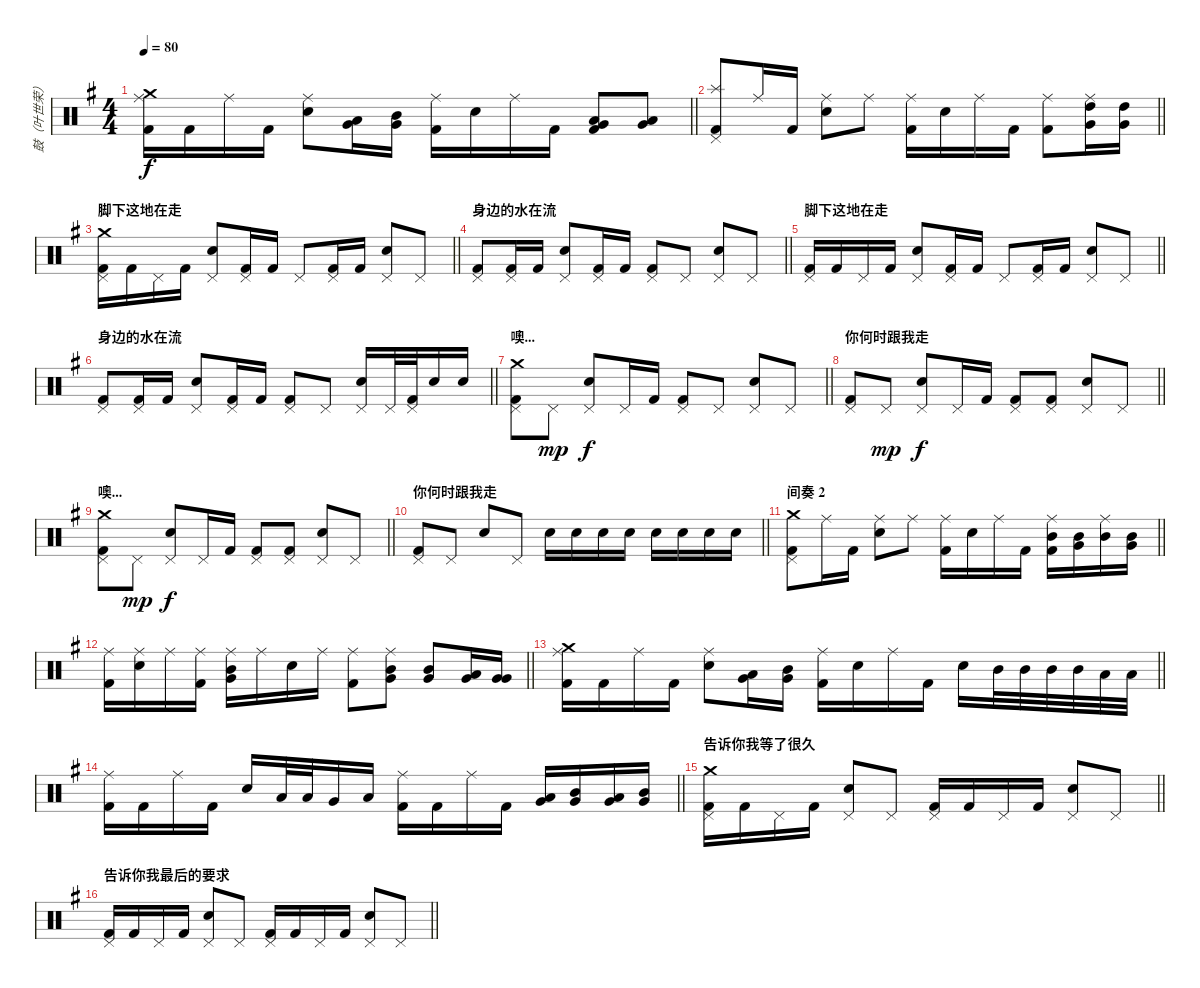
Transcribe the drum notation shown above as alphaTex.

\track ("鼓（叶世荣）" "鼓（叶世荣）") {instrument percussion}
\staff {score}
\articulation defaults
\ts (4 4)
\tempo 80
\clef neutral
\barLineRight lightlight
\ks g
("Crash medium (hit)" "Ride (middle)" "Kick (hit) 2").16{dy f} "Kick (hit) 2".16 "Ride (middle)".16 "Kick (hit) 2".16 ("Ride (middle)" "Snare (hit) 2").8 ("Low Tom (hit)" "Very Low Tom (hit)").16 ("Mid Tom (hit)" "Very Low Tom (hit)").16 ("Ride (middle)" "Kick (hit) 2").16 "Snare (hit) 2".16 "Ride (middle)".16 "Kick (hit) 2".16 ("Low Tom (hit)" "Very Low Tom (hit)" "Kick (hit) 2").8 ("Low Tom (hit)" "Very Low Tom (hit)").8 |
\barLineRight lightlight
("Splash (hit)" "Pedal Hi-Hat (hit)" "Kick (hit) 2").8 "Ride (middle)".16 "Kick (hit) 2".16 ("Ride (middle)" "Snare (hit) 2").8 "Ride (middle)".8 ("Ride (middle)" "Kick (hit) 2").16 "Snare (hit) 2".16 "Ride (middle)".16 "Kick (hit) 2".16 ("Ride (middle)" "Kick (hit) 2").8 ("Ride (middle)" "High Tom (hit)" "Very Low Tom (hit)").16 ("High Tom (hit)" "Very Low Tom (hit)").16 |
\section ("" "脚下这地在走")
\barLineRight lightlight
("Crash medium (hit)" "Pedal Hi-Hat (hit)" "Kick (hit) 2").16 "Kick (hit) 2".16 "Pedal Hi-Hat (hit)".16 "Kick (hit) 2".16 ("Pedal Hi-Hat (hit)" "Snare (hit) 2").8 ("Pedal Hi-Hat (hit)" "Kick (hit) 2").16 "Kick (hit) 2".16 "Pedal Hi-Hat (hit)".8 ("Pedal Hi-Hat (hit)" "Kick (hit) 2").16 "Kick (hit) 2".16 ("Pedal Hi-Hat (hit)" "Snare (hit) 2").8 "Pedal Hi-Hat (hit)".8 |
\section ("" "身边的水在流")
\barLineRight lightlight
("Pedal Hi-Hat (hit)" "Kick (hit) 2").8 ("Pedal Hi-Hat (hit)" "Kick (hit) 2").16 "Kick (hit) 2".16 ("Pedal Hi-Hat (hit)" "Snare (hit) 2").8 ("Pedal Hi-Hat (hit)" "Kick (hit) 2").16 "Kick (hit) 2".16 ("Pedal Hi-Hat (hit)" "Kick (hit) 2").8 "Pedal Hi-Hat (hit)".8 ("Pedal Hi-Hat (hit)" "Snare (hit) 2").8 "Pedal Hi-Hat (hit)".8 |
\section ("" "脚下这地在走")
\barLineRight lightlight
("Pedal Hi-Hat (hit)" "Kick (hit) 2").16 "Kick (hit) 2".16 "Pedal Hi-Hat (hit)".16 "Kick (hit) 2".16 ("Pedal Hi-Hat (hit)" "Snare (hit) 2").8 ("Pedal Hi-Hat (hit)" "Kick (hit) 2").16 "Kick (hit) 2".16 "Pedal Hi-Hat (hit)".8 ("Pedal Hi-Hat (hit)" "Kick (hit) 2").16 "Kick (hit) 2".16 ("Pedal Hi-Hat (hit)" "Snare (hit) 2").8 "Pedal Hi-Hat (hit)".8 |
\section ("" "身边的水在流")
\barLineRight lightlight
("Pedal Hi-Hat (hit)" "Kick (hit) 2").8 ("Pedal Hi-Hat (hit)" "Kick (hit) 2").16 "Kick (hit) 2".16 ("Pedal Hi-Hat (hit)" "Snare (hit) 2").8 ("Pedal Hi-Hat (hit)" "Kick (hit) 2").16 "Kick (hit) 2".16 ("Pedal Hi-Hat (hit)" "Kick (hit) 2").8 "Pedal Hi-Hat (hit)".8 ("Pedal Hi-Hat (hit)" "Snare (hit) 2").16 "Pedal Hi-Hat (hit)".32 ("Pedal Hi-Hat (hit)" "Kick (hit) 2").32 "Snare (hit) 2".16 "Snare (hit) 2".16 |
\section ("" "噢...")
\barLineRight lightlight
("Crash medium (hit)" "Pedal Hi-Hat (hit)" "Kick (hit) 2").8 "Pedal Hi-Hat (hit)".8{dy mp} ("Pedal Hi-Hat (hit)" "Snare (hit) 2").8{dy f} "Pedal Hi-Hat (hit)".16 "Kick (hit) 2".16 ("Pedal Hi-Hat (hit)" "Kick (hit) 2").8 "Pedal Hi-Hat (hit)".8 ("Pedal Hi-Hat (hit)" "Snare (hit) 2").8 "Pedal Hi-Hat (hit)".8 |
\section ("" "你何时跟我走")
\barLineRight lightlight
("Pedal Hi-Hat (hit)" "Kick (hit) 2").8 "Pedal Hi-Hat (hit)".8{dy mp} ("Pedal Hi-Hat (hit)" "Snare (hit) 2").8{dy f} "Pedal Hi-Hat (hit)".16 "Kick (hit) 2".16 ("Pedal Hi-Hat (hit)" "Kick (hit) 2").8 ("Pedal Hi-Hat (hit)" "Kick (hit) 2").8 ("Pedal Hi-Hat (hit)" "Snare (hit) 2").8 "Pedal Hi-Hat (hit)".8 |
\section ("" "噢...")
\barLineRight lightlight
("Crash medium (hit)" "Pedal Hi-Hat (hit)" "Kick (hit) 2").8 "Pedal Hi-Hat (hit)".8{dy mp} ("Pedal Hi-Hat (hit)" "Snare (hit) 2").8{dy f} "Pedal Hi-Hat (hit)".16 "Kick (hit) 2".16 ("Pedal Hi-Hat (hit)" "Kick (hit) 2").8 ("Pedal Hi-Hat (hit)" "Kick (hit) 2").8 ("Pedal Hi-Hat (hit)" "Snare (hit) 2").8 "Pedal Hi-Hat (hit)".8 |
\section ("" "你何时跟我走")
\barLineRight lightlight
("Pedal Hi-Hat (hit)" "Kick (hit) 2").8 "Pedal Hi-Hat (hit)".8 "Snare (hit) 2".8 "Pedal Hi-Hat (hit)".8 "Electric Snare (hit)".16 "Snare (hit) 2".16 "Electric Snare (hit)".16 "Snare (hit) 2".16 "Electric Snare (hit)".16 "Snare (hit) 2".16 "Electric Snare (hit)".16 "Snare (hit) 2".16 |
\section ("" "间奏 2")
\barLineRight lightlight
("Crash medium (hit)" "Pedal Hi-Hat (hit)" "Kick (hit) 2").8 "Ride (middle)".16 "Kick (hit) 2".16 ("Ride (middle)" "Snare (hit) 2").8 "Ride (middle)".8 ("Ride (middle)" "Kick (hit) 2").16 "Snare (hit) 2".16 "Ride (middle)".16 "Kick (hit) 2".16 ("Ride (middle)" "Mid Tom (hit)" "Kick (hit) 2").16 ("Mid Tom (hit)" "Very Low Tom (hit)").16 ("Ride (middle)" "Mid Tom (hit)").16 ("Mid Tom (hit)" "Very Low Tom (hit)").16 |
\barLineRight lightlight
("Ride (middle)" "Kick (hit) 2").16 ("Ride (middle)" "Snare (hit) 2").16 "Ride (middle)".16 ("Ride (middle)" "Kick (hit) 2").16 ("Ride (middle)" "Mid Tom (hit)" "Very Low Tom (hit)").16 "Ride (middle)".16 "Snare (hit) 2".16 "Ride (middle)".16 ("Ride (middle)" "Kick (hit) 2").8 ("Ride (middle)" "Mid Tom (hit)" "Very Low Tom (hit)").8 ("Mid Tom (hit)" "Very Low Tom (hit)").8 ("Low Tom (hit)" "Very Low Tom (hit)").16 ("Very Low Tom (hit)" "Very Low Tom (hit)").16 |
\barLineRight lightlight
("Crash medium (hit)" "Ride (middle)" "Kick (hit) 2").16 "Kick (hit) 2".16 "Ride (middle)".16 "Kick (hit) 2".16 ("Ride (middle)" "Snare (hit) 2").8 ("Low Tom (hit)" "Very Low Tom (hit)").16 ("Mid Tom (hit)" "Very Low Tom (hit)").16 ("Ride (middle)" "Kick (hit) 2").16 "Snare (hit) 2".16 "Ride (middle)".16 "Kick (hit) 2".16 "Snare (hit) 2".16 "Mid Tom (hit)".32 "Mid Tom (hit)".32 "Mid Tom (hit)".32 "Mid Tom (hit)".32 "Low Tom (hit)".32 "Low Tom (hit)".32 |
\barLineRight lightlight
("Ride (middle)" "Kick (hit) 2").16 "Kick (hit) 2".16 "Ride (middle)".16 "Kick (hit) 2".16 "Snare (hit) 2".16 "Low Tom (hit)".32 "Low Tom (hit)".32 "Very Low Tom (hit)".16 "Low Tom (hit)".16 ("Ride (middle)" "Kick (hit) 2").16 "Kick (hit) 2".16 "Ride (middle)".16 "Kick (hit) 2".16 ("Low Tom (hit)" "Very Low Tom (hit)").16 ("Mid Tom (hit)" "Very Low Tom (hit)").16 ("Low Tom (hit)" "Very Low Tom (hit)").16 ("Mid Tom (hit)" "Very Low Tom (hit)").16 |
\section ("" "告诉你我等了很久")
\barLineRight lightlight
("Crash medium (hit)" "Pedal Hi-Hat (hit)" "Kick (hit) 2").16 "Kick (hit) 2".16 "Pedal Hi-Hat (hit)".16 "Kick (hit) 2".16 ("Pedal Hi-Hat (hit)" "Snare (hit) 2").8 "Pedal Hi-Hat (hit)".8 ("Pedal Hi-Hat (hit)" "Kick (hit) 2").16 "Kick (hit) 2".16 "Pedal Hi-Hat (hit)".16 "Kick (hit) 2".16 ("Pedal Hi-Hat (hit)" "Snare (hit) 2").8 "Pedal Hi-Hat (hit)".8 |
\section ("" "告诉你我最后的要求")
\barLineRight lightlight
("Pedal Hi-Hat (hit)" "Kick (hit) 2").16 "Kick (hit) 2".16 "Pedal Hi-Hat (hit)".16 "Kick (hit) 2".16 ("Pedal Hi-Hat (hit)" "Snare (hit) 2").8 "Pedal Hi-Hat (hit)".8 ("Pedal Hi-Hat (hit)" "Kick (hit) 2").16 "Kick (hit) 2".16 "Pedal Hi-Hat (hit)".16 "Kick (hit) 2".16 ("Pedal Hi-Hat (hit)" "Snare (hit) 2").8 "Pedal Hi-Hat (hit)".8
